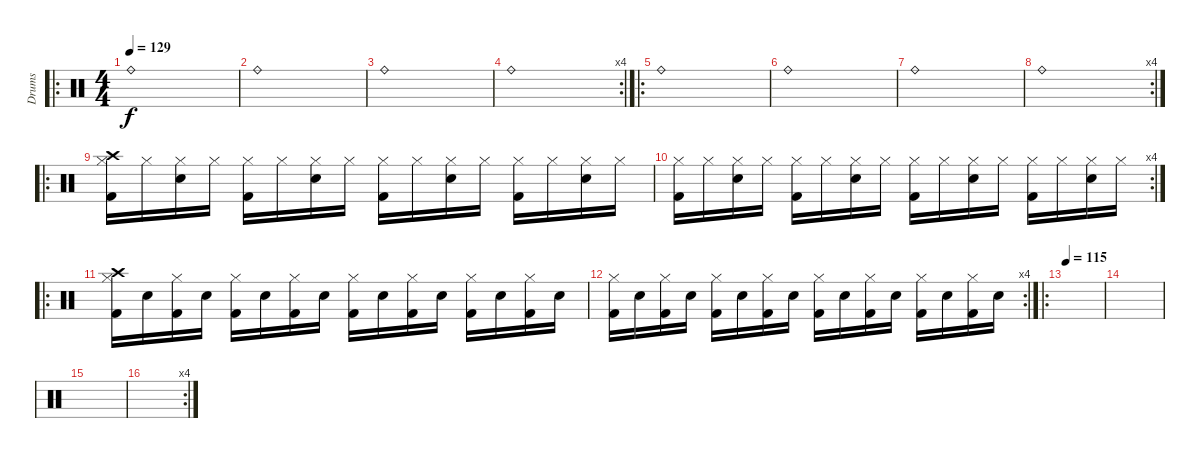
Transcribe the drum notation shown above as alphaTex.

\track ("Drums" "Drums") {instrument percussion}
\staff {score}
\articulation defaults
\ro
\ts (4 4)
\tempo 129
\clef neutral
\ks c "Ride (bell)".1{dy f}
|
"Ride (bell)".1 |
"Ride (bell)".1 |
\rc 4 "Ride (bell)".1
|
\ro "Ride (bell)".1
|
"Ride (bell)".1 |
"Ride (bell)".1 |
\rc 4 "Ride (bell)".1
|
\ro
("Hi-Hat (closed)" "Kick (hit) 2" "Crash high (hit)").16 "Hi-Hat (closed)".16 ("Hi-Hat (closed)" "Snare (hit) 2").16 "Hi-Hat (closed)".16 ("Hi-Hat (closed)" "Kick (hit) 2").16 "Hi-Hat (closed)".16 ("Hi-Hat (closed)" "Snare (hit) 2").16 "Hi-Hat (closed)".16 ("Hi-Hat (closed)" "Kick (hit) 2").16 "Hi-Hat (closed)".16 ("Hi-Hat (closed)" "Snare (hit) 2").16 "Hi-Hat (closed)".16 ("Hi-Hat (closed)" "Kick (hit) 2").16 "Hi-Hat (closed)".16 ("Hi-Hat (closed)" "Snare (hit) 2").16 "Hi-Hat (closed)".16 |
\rc 4
("Hi-Hat (closed)" "Kick (hit) 2").16 "Hi-Hat (closed)".16 ("Hi-Hat (closed)" "Snare (hit) 2").16 "Hi-Hat (closed)".16 ("Hi-Hat (closed)" "Kick (hit) 2").16 "Hi-Hat (closed)".16 ("Hi-Hat (closed)" "Snare (hit) 2").16 "Hi-Hat (closed)".16 ("Hi-Hat (closed)" "Kick (hit) 2").16 "Hi-Hat (closed)".16 ("Hi-Hat (closed)" "Snare (hit) 2").16 "Hi-Hat (closed)".16 ("Hi-Hat (closed)" "Kick (hit) 2").16 "Hi-Hat (closed)".16 ("Hi-Hat (closed)" "Snare (hit) 2").16 "Hi-Hat (closed)".16 |
\ro
("Kick (hit) 2" "Hi-Hat (closed)" "Crash high (hit)").16 "Snare (hit) 2".16 ("Kick (hit) 2" "Hi-Hat (closed)").16 "Snare (hit) 2".16 ("Kick (hit) 2" "Hi-Hat (closed)").16 "Snare (hit) 2".16 ("Kick (hit) 2" "Hi-Hat (closed)").16 "Snare (hit) 2".16 ("Kick (hit) 2" "Hi-Hat (closed)").16 "Snare (hit) 2".16 ("Kick (hit) 2" "Hi-Hat (closed)").16 "Snare (hit) 2".16 ("Kick (hit) 2" "Hi-Hat (closed)").16 "Snare (hit) 2".16 ("Kick (hit) 2" "Hi-Hat (closed)").16 "Snare (hit) 2".16 |
\rc 4
("Kick (hit) 2" "Hi-Hat (closed)").16 "Snare (hit) 2".16 ("Kick (hit) 2" "Hi-Hat (closed)").16 "Snare (hit) 2".16 ("Kick (hit) 2" "Hi-Hat (closed)").16 "Snare (hit) 2".16 ("Kick (hit) 2" "Hi-Hat (closed)").16 "Snare (hit) 2".16 ("Kick (hit) 2" "Hi-Hat (closed)").16 "Snare (hit) 2".16 ("Kick (hit) 2" "Hi-Hat (closed)").16 "Snare (hit) 2".16 ("Kick (hit) 2" "Hi-Hat (closed)").16 "Snare (hit) 2".16 ("Kick (hit) 2" "Hi-Hat (closed)").16 "Snare (hit) 2".16 |
\ro
\tempo 115
|
|
|
\rc 4
